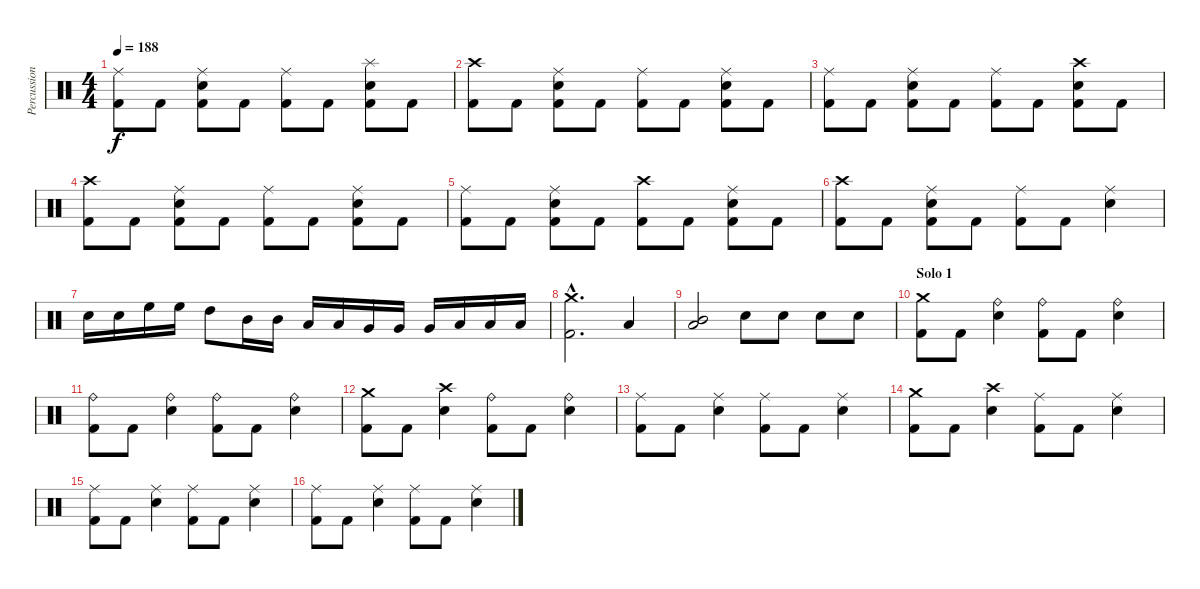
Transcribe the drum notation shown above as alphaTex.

\track ("Percussions" "Percussion") {instrument percussion}
\staff {score}
\articulation defaults
\ts (4 4)
\tempo 188
\clef neutral
\ks c
("Ride (middle)" "Kick (hit) 2").8{dy f} "Kick (hit) 2".8 ("Ride (middle)" "Snare (hit) 2" "Kick (hit) 2").8 "Kick (hit) 2".8 ("Ride (middle)" "Kick (hit) 2").8 "Kick (hit) 2".8 ("Splash (hit)" "Snare (hit) 2" "Kick (hit) 2").8 "Kick (hit) 2".8 |
("Crash high (hit)" "Kick (hit) 2").8 "Kick (hit) 2".8 ("Ride (middle)" "Snare (hit) 2" "Kick (hit) 2").8 "Kick (hit) 2".8 ("Ride (middle)" "Kick (hit) 2").8 "Kick (hit) 2".8 ("Ride (middle)" "Snare (hit) 2" "Kick (hit) 2").8 "Kick (hit) 2".8 |
("Ride (middle)" "Kick (hit) 2").8 "Kick (hit) 2".8 ("Ride (middle)" "Snare (hit) 2" "Kick (hit) 2").8 "Kick (hit) 2".8 ("Ride (middle)" "Kick (hit) 2").8 "Kick (hit) 2".8 ("Crash high (hit)" "Snare (hit) 2" "Kick (hit) 2").8 "Kick (hit) 2".8 |
("Crash high (hit)" "Kick (hit) 2").8 "Kick (hit) 2".8 ("Ride (middle)" "Snare (hit) 2" "Kick (hit) 2").8 "Kick (hit) 2".8 ("Ride (middle)" "Kick (hit) 2").8 "Kick (hit) 2".8 ("Ride (middle)" "Snare (hit) 2" "Kick (hit) 2").8 "Kick (hit) 2".8 |
("Ride (middle)" "Kick (hit) 2").8 "Kick (hit) 2".8 ("Ride (middle)" "Snare (hit) 2" "Kick (hit) 2").8 "Kick (hit) 2".8 ("Crash high (hit)" "Kick (hit) 2").8 "Kick (hit) 2".8 ("Ride (middle)" "Snare (hit) 2" "Kick (hit) 2").8 "Kick (hit) 2".8 |
("Crash high (hit)" "Kick (hit) 2").8 "Kick (hit) 2".8 ("Ride (middle)" "Snare (hit) 2" "Kick (hit) 2").8 "Kick (hit) 2".8 ("Ride (middle)" "Kick (hit) 2").8 "Kick (hit) 2".8 ("Ride (middle)" "Snare (hit) 2").4 |
"Snare (hit) 2".16 "Snare (hit) 2".16 "High Floor Tom (hit)".16 "High Floor Tom (hit)".16 "High Tom (hit)".8 "Mid Tom (hit)".16 "Mid Tom (hit)".16 "Low Tom (hit)".16 "Low Tom (hit)".16 "Very Low Tom (hit)".16 "Very Low Tom (hit)".16 "Very Low Tom (hit)".16 "Low Floor Tom (hit)".16 "Low Floor Tom (hit)".16 "Low Floor Tom (hit)".16 |
("Crash medium (hit)"{hac} "Kick (hit) 2"{hac}).2{d} "Low Tom (hit)".4 |
("Mid Tom (hit)" "Low Tom (hit)").2 "Snare (hit) 2".8 "Snare (hit) 2".8 "Snare (hit) 2".8 "Snare (hit) 2".8 |
\section ("" "Solo 1")
("Crash medium (hit)" "Kick (hit) 2").8 "Kick (hit) 2".8 ("Ride (bell)" "Snare (hit) 2").4 ("Ride (bell)" "Kick (hit) 2").8 "Kick (hit) 2".8 ("Ride (bell)" "Snare (hit) 2").4 |
("Ride (bell)" "Kick (hit) 2").8 "Kick (hit) 2".8 ("Ride (bell)" "Snare (hit) 2").4 ("Ride (bell)" "Kick (hit) 2").8 "Kick (hit) 2".8 ("Ride (bell)" "Snare (hit) 2").4 |
("Crash medium (hit)" "Kick (hit) 2").8 "Kick (hit) 2".8 ("Crash high (hit)" "Snare (hit) 2").4 ("Ride (bell)" "Kick (hit) 2").8 "Kick (hit) 2".8 ("Ride (bell)" "Snare (hit) 2").4 |
("Ride (middle)" "Kick (hit) 2").8 "Kick (hit) 2".8 ("Ride (middle)" "Snare (hit) 2").4 ("Ride (middle)" "Kick (hit) 2").8 "Kick (hit) 2".8 ("Ride (middle)" "Snare (hit) 2").4 |
("Crash medium (hit)" "Kick (hit) 2").8 "Kick (hit) 2".8 ("Crash high (hit)" "Snare (hit) 2").4 ("Ride (middle)" "Kick (hit) 2").8 "Kick (hit) 2".8 ("Ride (middle)" "Snare (hit) 2").4 |
("Ride (middle)" "Kick (hit) 2").8 "Kick (hit) 2".8 ("Ride (middle)" "Snare (hit) 2").4 ("Ride (middle)" "Kick (hit) 2").8 "Kick (hit) 2".8 ("Ride (middle)" "Snare (hit) 2").4 |
("Ride (middle)" "Kick (hit) 2").8 "Kick (hit) 2".8 ("Ride (middle)" "Snare (hit) 2").4 ("Ride (middle)" "Kick (hit) 2").8 "Kick (hit) 2".8 ("Ride (middle)" "Snare (hit) 2").4
